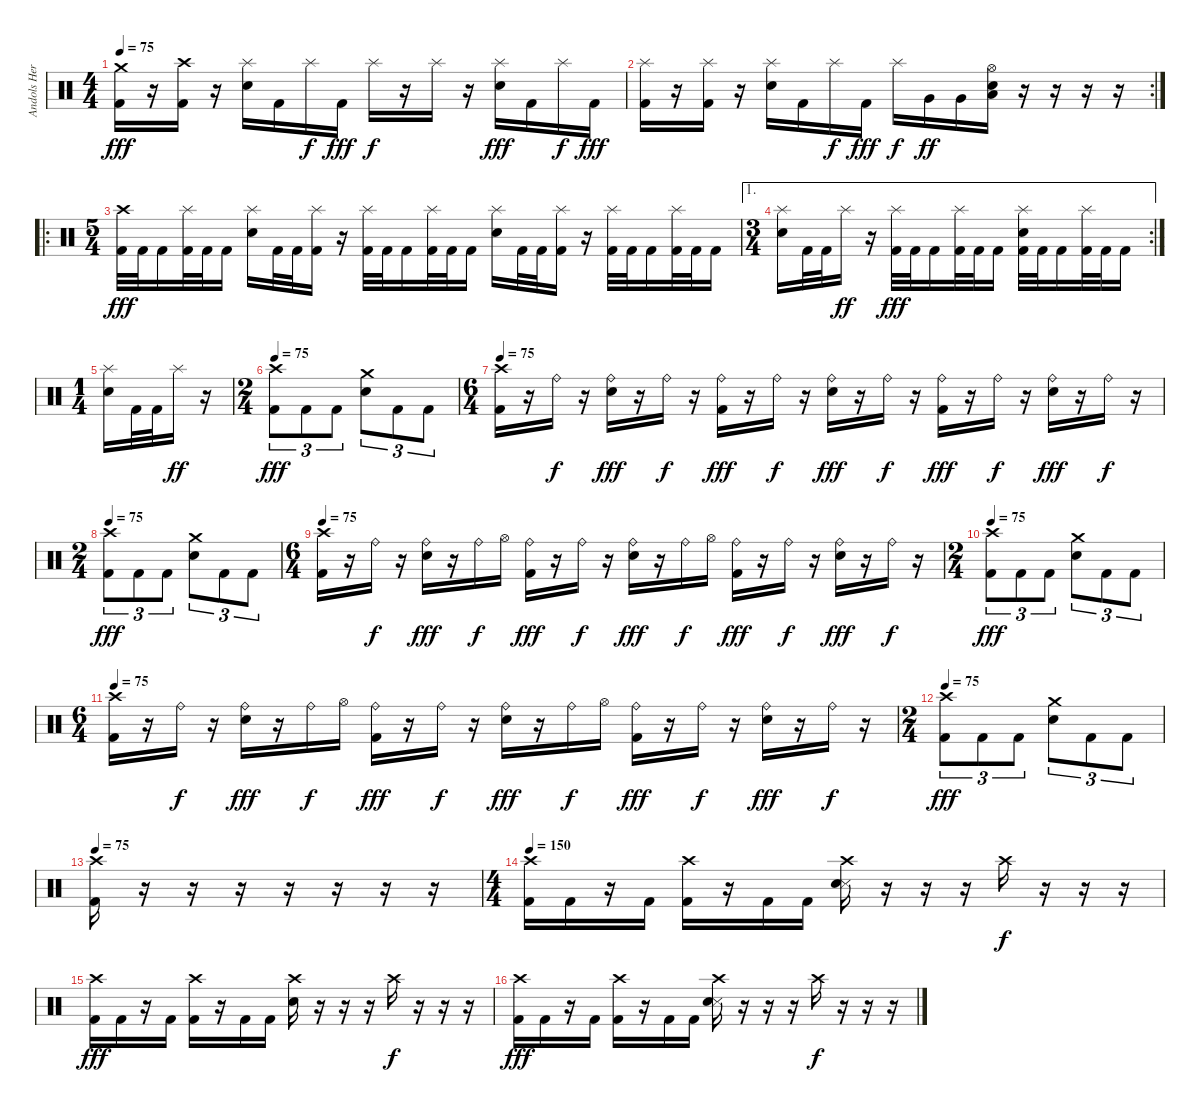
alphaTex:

\track ("Andols Herrick" "Andols Her") {instrument percussion}
\staff {score}
\articulation defaults
\ts (4 4)
\tempo 75
\clef neutral
\ks c
("Crash medium (hit)" "Kick (hit) 2").16{dy fff} r.16 ("Crash high (hit)" "Kick (hit) 2").16 r.16 ("Splash (hit)" "Snare (hit) 2").16 "Kick (hit) 2".16 "Splash (hit)".16{dy f} "Kick (hit) 2".16{dy fff} "Splash (hit)".16{dy f} r.16 "Splash (hit)".16 r.16 ("Splash (hit)" "Snare (hit) 2").16{dy fff} "Kick (hit) 2".16 "Splash (hit)".16{dy f} "Kick (hit) 2".16{dy fff} |
\rc 2
("Splash (hit)" "Kick (hit) 2").16 r.16 ("Splash (hit)" "Kick (hit) 2").16 r.16 ("Splash (hit)" "Snare (hit) 2").16 "Kick (hit) 2".16 "Splash (hit)".16{dy f} "Kick (hit) 2".16{dy fff} "Splash (hit)".16{dy f} "Very Low Tom (hit)".16{dy ff} "Very Low Tom (hit)".16 ("Hi-Hat (open)" "Snare (hit) 2" "Low Floor Tom (hit)").16 r.16 r.16 r.16 r.16 |
\ro
\ts (5 4)
("Crash high (hit)" "Kick (hit) 2").32{dy fff} "Kick (hit) 2".32 "Kick (hit) 2".16 ("Splash (hit)" "Kick (hit) 2").32 "Kick (hit) 2".32 "Kick (hit) 2".16 ("Splash (hit)" "Snare (hit) 2").16 "Kick (hit) 2".32 "Kick (hit) 2".32 ("Splash (hit)" "Kick (hit) 2").16 r.16 ("Splash (hit)" "Kick (hit) 2").32 "Kick (hit) 2".32 "Kick (hit) 2".16 ("Splash (hit)" "Kick (hit) 2").32 "Kick (hit) 2".32 "Kick (hit) 2".16 ("Splash (hit)" "Snare (hit) 2").16 "Kick (hit) 2".32 "Kick (hit) 2".32 ("Splash (hit)" "Kick (hit) 2").16 r.16 ("Splash (hit)" "Kick (hit) 2").32 "Kick (hit) 2".32 "Kick (hit) 2".16 ("Splash (hit)" "Kick (hit) 2").32 "Kick (hit) 2".32 "Kick (hit) 2".16 |
\ae 1
\rc 2
\ts (3 4)
("Splash (hit)" "Snare (hit) 2").16 "Kick (hit) 2".32 "Kick (hit) 2".32 "Splash (hit)".16{dy ff} r.16 ("Splash (hit)" "Kick (hit) 2").32{dy fff} "Kick (hit) 2".32 "Kick (hit) 2".16 ("Splash (hit)" "Kick (hit) 2").32 "Kick (hit) 2".32 "Kick (hit) 2".16 ("Splash (hit)" "Snare (hit) 2" "Kick (hit) 2").32 "Kick (hit) 2".32 "Kick (hit) 2".16 ("Splash (hit)" "Kick (hit) 2").32 "Kick (hit) 2".32 "Kick (hit) 2".16 |
\ts (1 4)
("Splash (hit)" "Snare (hit) 2").16 "Kick (hit) 2".32 "Kick (hit) 2".32 "Splash (hit)".16{dy ff} r.16 |
\ts (2 4)
\tempo 75
("Crash high (hit)" "Kick (hit) 2").8{tu (3 2) dy fff} "Kick (hit) 2".8{tu (3 2)} "Kick (hit) 2".8{tu (3 2)} ("Crash medium (hit)" "Snare (hit) 2").8{tu (3 2)} "Kick (hit) 2".8{tu (3 2)} "Kick (hit) 2".8{tu (3 2)} |
\ts (6 4)
\tempo 75
("Crash high (hit)" "Kick (hit) 2").16 r.16 "Ride (bell)".16{dy f} r.16 ("Ride (bell)" "Snare (hit) 2").16{dy fff} r.16 "Ride (bell)".16{dy f} r.16 ("Ride (bell)" "Kick (hit) 2").16{dy fff} r.16 "Ride (bell)".16{dy f} r.16 ("Ride (bell)" "Snare (hit) 2").16{dy fff} r.16 "Ride (bell)".16{dy f} r.16 ("Ride (bell)" "Kick (hit) 2").16{dy fff} r.16 "Ride (bell)".16{dy f} r.16 ("Ride (bell)" "Snare (hit) 2").16{dy fff} r.16 "Ride (bell)".16{dy f} r.16 |
\ts (2 4)
\tempo 75
("Crash high (hit)" "Kick (hit) 2").8{tu (3 2) dy fff} "Kick (hit) 2".8{tu (3 2)} "Kick (hit) 2".8{tu (3 2)} ("Crash medium (hit)" "Snare (hit) 2").8{tu (3 2)} "Kick (hit) 2".8{tu (3 2)} "Kick (hit) 2".8{tu (3 2)} |
\ts (6 4)
\tempo 75
("Crash high (hit)" "Kick (hit) 2").16 r.16 "Ride (bell)".16{dy f} r.16 ("Ride (bell)" "Snare (hit) 2").16{dy fff} r.16 "Ride (bell)".16{dy f} "Hi-Hat (open)".16 ("Ride (bell)" "Kick (hit) 2").16{dy fff} r.16 "Ride (bell)".16{dy f} r.16 ("Ride (bell)" "Snare (hit) 2").16{dy fff} r.16 "Ride (bell)".16{dy f} "Hi-Hat (open)".16 ("Ride (bell)" "Kick (hit) 2").16{dy fff} r.16 "Ride (bell)".16{dy f} r.16 ("Ride (bell)" "Snare (hit) 2").16{dy fff} r.16 "Ride (bell)".16{dy f} r.16 |
\ts (2 4)
\tempo 75
("Crash high (hit)" "Kick (hit) 2").8{tu (3 2) dy fff} "Kick (hit) 2".8{tu (3 2)} "Kick (hit) 2".8{tu (3 2)} ("Crash medium (hit)" "Snare (hit) 2").8{tu (3 2)} "Kick (hit) 2".8{tu (3 2)} "Kick (hit) 2".8{tu (3 2)} |
\ts (6 4)
\tempo 75
("Crash high (hit)" "Kick (hit) 2").16 r.16 "Ride (bell)".16{dy f} r.16 ("Ride (bell)" "Snare (hit) 2").16{dy fff} r.16 "Ride (bell)".16{dy f} "Hi-Hat (open)".16 ("Ride (bell)" "Kick (hit) 2").16{dy fff} r.16 "Ride (bell)".16{dy f} r.16 ("Ride (bell)" "Snare (hit) 2").16{dy fff} r.16 "Ride (bell)".16{dy f} "Hi-Hat (open)".16 ("Ride (bell)" "Kick (hit) 2").16{dy fff} r.16 "Ride (bell)".16{dy f} r.16 ("Ride (bell)" "Snare (hit) 2").16{dy fff} r.16 "Ride (bell)".16{dy f} r.16 |
\ts (2 4)
\tempo 75
("Crash high (hit)" "Kick (hit) 2").8{tu (3 2) dy fff} "Kick (hit) 2".8{tu (3 2)} "Kick (hit) 2".8{tu (3 2)} ("Crash medium (hit)" "Snare (hit) 2").8{tu (3 2)} "Kick (hit) 2".8{tu (3 2)} "Kick (hit) 2".8{tu (3 2)} |
\tempo 75
("Crash high (hit)" "Kick (hit) 2").16 r.16 r.16 r.16 r.16 r.16 r.16 r.16 |
\ts (4 4)
\tempo 150
("Crash high (hit)" "Kick (hit) 2").16 "Kick (hit) 2".16 r.16 "Kick (hit) 2".16 ("Crash high (hit)" "Kick (hit) 2").16 r.16 "Kick (hit) 2".16 "Kick (hit) 2".16 ("Crash high (hit)" "Snare (side stick) 3" "Snare (hit) 2").16 r.16 r.16 r.16 "Crash high (hit)".16{dy f} r.16 r.16 r.16 |
("Crash high (hit)" "Kick (hit) 2").16{dy fff} "Kick (hit) 2".16 r.16 "Kick (hit) 2".16 ("Crash high (hit)" "Kick (hit) 2").16 r.16 "Kick (hit) 2".16 "Kick (hit) 2".16 ("Crash high (hit)" "Snare (hit) 2").16 r.16 r.16 r.16 "Crash high (hit)".16{dy f} r.16 r.16 r.16 |
("Crash high (hit)" "Kick (hit) 2").16{dy fff} "Kick (hit) 2".16 r.16 "Kick (hit) 2".16 ("Crash high (hit)" "Kick (hit) 2").16 r.16 "Kick (hit) 2".16 "Kick (hit) 2".16 ("Crash high (hit)" "Snare (side stick) 3" "Snare (hit) 2").16 r.16 r.16 r.16 "Crash high (hit)".16{dy f} r.16 r.16 r.16
